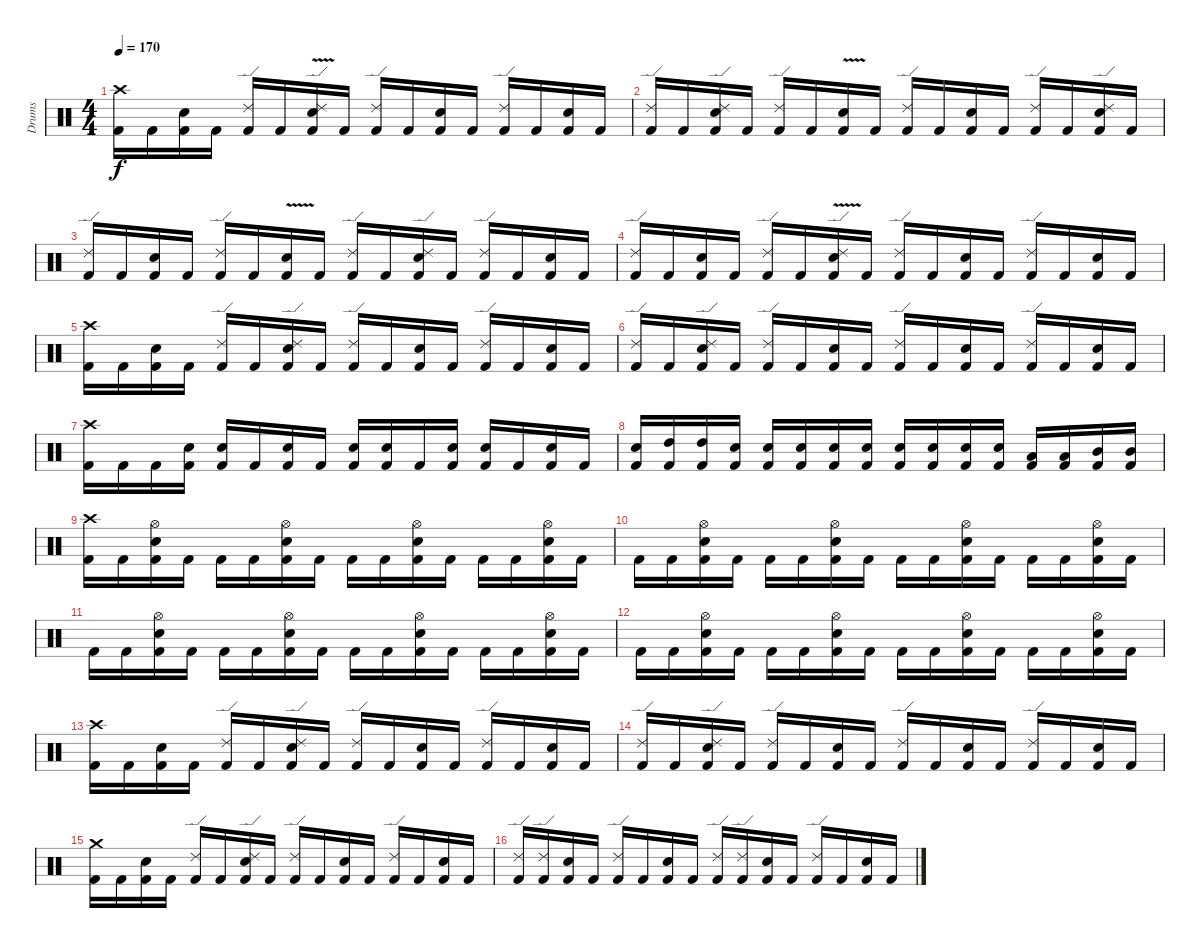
\track ("Drums" "Drums") {instrument percussion}
\staff {score}
\articulation defaults
\ts (4 4)
\tempo 170
\clef neutral
\ks c
("Kick (hit) 2" "Crash high (hit)").16{dy f} "Kick (hit) 2".16 ("Kick (hit) 2" "Electric Snare (hit)").16 "Kick (hit) 2".16 ("Kick (hit) 2" "Ride (edge) 2").16 "Kick (hit) 2".16 ("Kick (hit) 2" "Electric Snare (hit)"{v} "Ride (edge) 2").16 "Kick (hit) 2".16 ("Kick (hit) 2" "Ride (edge) 2").16 "Kick (hit) 2".16 ("Kick (hit) 2" "Electric Snare (hit)").16 "Kick (hit) 2".16 ("Kick (hit) 2" "Ride (edge) 2").16 "Kick (hit) 2".16 ("Kick (hit) 2" "Electric Snare (hit)").16 "Kick (hit) 2".16 |
("Kick (hit) 2" "Ride (edge) 2").16 "Kick (hit) 2".16 ("Kick (hit) 2" "Electric Snare (hit)" "Ride (edge) 2").16 "Kick (hit) 2".16 ("Kick (hit) 2" "Ride (edge) 2").16 "Kick (hit) 2".16 ("Kick (hit) 2" "Electric Snare (hit)"{v}).16 "Kick (hit) 2".16 ("Kick (hit) 2" "Ride (edge) 2").16 "Kick (hit) 2".16 ("Kick (hit) 2" "Electric Snare (hit)").16 "Kick (hit) 2".16 ("Kick (hit) 2" "Ride (edge) 2").16 "Kick (hit) 2".16 ("Kick (hit) 2" "Electric Snare (hit)" "Ride (edge) 2").16 "Kick (hit) 2".16 |
("Kick (hit) 2" "Ride (edge) 2").16 "Kick (hit) 2".16 ("Kick (hit) 2" "Electric Snare (hit)").16 "Kick (hit) 2".16 ("Kick (hit) 2" "Ride (edge) 2").16 "Kick (hit) 2".16 ("Kick (hit) 2" "Electric Snare (hit)"{v}).16 "Kick (hit) 2".16 ("Kick (hit) 2" "Ride (edge) 2").16 "Kick (hit) 2".16 ("Kick (hit) 2" "Electric Snare (hit)" "Ride (edge) 2").16 "Kick (hit) 2".16 ("Kick (hit) 2" "Ride (edge) 2").16 "Kick (hit) 2".16 ("Kick (hit) 2" "Electric Snare (hit)").16 "Kick (hit) 2".16 |
("Kick (hit) 2" "Ride (edge) 2").16 "Kick (hit) 2".16 ("Kick (hit) 2" "Electric Snare (hit)").16 "Kick (hit) 2".16 ("Kick (hit) 2" "Ride (edge) 2").16 "Kick (hit) 2".16 ("Kick (hit) 2" "Electric Snare (hit)"{v} "Ride (edge) 2").16 "Kick (hit) 2".16 ("Kick (hit) 2" "Ride (edge) 2").16 "Kick (hit) 2".16 ("Kick (hit) 2" "Electric Snare (hit)").16 "Kick (hit) 2".16 ("Kick (hit) 2" "Ride (edge) 2").16 "Kick (hit) 2".16 ("Kick (hit) 2" "Electric Snare (hit)").16 "Kick (hit) 2".16 |
("Kick (hit) 2" "Crash high (hit)").16 "Kick (hit) 2".16 ("Kick (hit) 2" "Electric Snare (hit)").16 "Kick (hit) 2".16 ("Kick (hit) 2" "Ride (edge) 2").16 "Kick (hit) 2".16 ("Kick (hit) 2" "Electric Snare (hit)" "Ride (edge) 2").16 "Kick (hit) 2".16 ("Kick (hit) 2" "Ride (edge) 2").16 "Kick (hit) 2".16 ("Kick (hit) 2" "Electric Snare (hit)").16 "Kick (hit) 2".16 ("Kick (hit) 2" "Ride (edge) 2").16 "Kick (hit) 2".16 ("Kick (hit) 2" "Electric Snare (hit)").16 "Kick (hit) 2".16 |
("Kick (hit) 2" "Ride (edge) 2").16 "Kick (hit) 2".16 ("Kick (hit) 2" "Electric Snare (hit)" "Ride (edge) 2").16 "Kick (hit) 2".16 ("Kick (hit) 2" "Ride (edge) 2").16 "Kick (hit) 2".16 ("Kick (hit) 2" "Electric Snare (hit)").16 "Kick (hit) 2".16 ("Kick (hit) 2" "Ride (edge) 2").16 "Kick (hit) 2".16 ("Kick (hit) 2" "Electric Snare (hit)").16 "Kick (hit) 2".16 ("Kick (hit) 2" "Ride (edge) 2").16 "Kick (hit) 2".16 ("Kick (hit) 2" "Electric Snare (hit)").16 "Kick (hit) 2".16 |
("Kick (hit) 2" "Crash high (hit)").16 "Kick (hit) 2".16 "Kick (hit) 2".16 ("Kick (hit) 2" "Electric Snare (hit)").16 ("Kick (hit) 2" "Electric Snare (hit)").16 "Kick (hit) 2".16 ("Kick (hit) 2" "Electric Snare (hit)").16 "Kick (hit) 2".16 ("Kick (hit) 2" "Electric Snare (hit)").16 ("Kick (hit) 2" "Electric Snare (hit)").16 "Kick (hit) 2".16 ("Kick (hit) 2" "Electric Snare (hit)").16 ("Kick (hit) 2" "Electric Snare (hit)").16 "Kick (hit) 2".16 ("Kick (hit) 2" "Electric Snare (hit)").16 "Kick (hit) 2".16 |
("Kick (hit) 2" "Electric Snare (hit)").16 ("Kick (hit) 2" "High Tom (hit)").16 ("Kick (hit) 2" "High Tom (hit)").16 ("Kick (hit) 2" "Electric Snare (hit)").16 ("Kick (hit) 2" "Electric Snare (hit)").16 ("Kick (hit) 2" "Electric Snare (hit)").16 ("Kick (hit) 2" "Electric Snare (hit)").16 ("Kick (hit) 2" "Electric Snare (hit)").16 ("Kick (hit) 2" "Electric Snare (hit)").16 ("Kick (hit) 2" "Electric Snare (hit)").16 ("Kick (hit) 2" "Electric Snare (hit)").16 ("Kick (hit) 2" "Electric Snare (hit)").16 ("Kick (hit) 2" "Low Tom (hit)").16 ("Kick (hit) 2" "Low Tom (hit)").16 ("Kick (hit) 2" "Mid Tom (hit)").16 ("Kick (hit) 2" "Mid Tom (hit)").16 |
("Kick (hit) 2" "Crash high (hit)").16 "Kick (hit) 2".16 ("Kick (hit) 2" "Electric Snare (hit)" "Hi-Hat (open)").16 "Kick (hit) 2".16 "Kick (hit) 2".16 "Kick (hit) 2".16 ("Kick (hit) 2" "Electric Snare (hit)" "Hi-Hat (open)").16 "Kick (hit) 2".16 "Kick (hit) 2".16 "Kick (hit) 2".16 ("Kick (hit) 2" "Electric Snare (hit)" "Hi-Hat (open)").16 "Kick (hit) 2".16 "Kick (hit) 2".16 "Kick (hit) 2".16 ("Kick (hit) 2" "Electric Snare (hit)" "Hi-Hat (open)").16 "Kick (hit) 2".16 |
"Kick (hit) 2".16 "Kick (hit) 2".16 ("Kick (hit) 2" "Electric Snare (hit)" "Hi-Hat (open)").16 "Kick (hit) 2".16 "Kick (hit) 2".16 "Kick (hit) 2".16 ("Kick (hit) 2" "Electric Snare (hit)" "Hi-Hat (open)").16 "Kick (hit) 2".16 "Kick (hit) 2".16 "Kick (hit) 2".16 ("Kick (hit) 2" "Electric Snare (hit)" "Hi-Hat (open)").16 "Kick (hit) 2".16 "Kick (hit) 2".16 "Kick (hit) 2".16 ("Kick (hit) 2" "Electric Snare (hit)" "Hi-Hat (open)").16 "Kick (hit) 2".16 |
"Kick (hit) 2".16 "Kick (hit) 2".16 ("Kick (hit) 2" "Electric Snare (hit)" "Hi-Hat (open)").16 "Kick (hit) 2".16 "Kick (hit) 2".16 "Kick (hit) 2".16 ("Kick (hit) 2" "Electric Snare (hit)" "Hi-Hat (open)").16 "Kick (hit) 2".16 "Kick (hit) 2".16 "Kick (hit) 2".16 ("Kick (hit) 2" "Electric Snare (hit)" "Hi-Hat (open)").16 "Kick (hit) 2".16 "Kick (hit) 2".16 "Kick (hit) 2".16 ("Kick (hit) 2" "Electric Snare (hit)" "Hi-Hat (open)").16 "Kick (hit) 2".16 |
"Kick (hit) 2".16 "Kick (hit) 2".16 ("Kick (hit) 2" "Electric Snare (hit)" "Hi-Hat (open)").16 "Kick (hit) 2".16 "Kick (hit) 2".16 "Kick (hit) 2".16 ("Kick (hit) 2" "Electric Snare (hit)" "Hi-Hat (open)").16 "Kick (hit) 2".16 "Kick (hit) 2".16 "Kick (hit) 2".16 ("Kick (hit) 2" "Electric Snare (hit)" "Hi-Hat (open)").16 "Kick (hit) 2".16 "Kick (hit) 2".16 "Kick (hit) 2".16 ("Kick (hit) 2" "Electric Snare (hit)" "Hi-Hat (open)").16 "Kick (hit) 2".16 |
("Kick (hit) 2" "Crash high (hit)").16 "Kick (hit) 2".16 ("Kick (hit) 2" "Electric Snare (hit)").16 "Kick (hit) 2".16 ("Kick (hit) 2" "Ride (edge) 2").16 "Kick (hit) 2".16 ("Kick (hit) 2" "Electric Snare (hit)" "Ride (edge) 2").16 "Kick (hit) 2".16 ("Kick (hit) 2" "Ride (edge) 2").16 "Kick (hit) 2".16 ("Kick (hit) 2" "Electric Snare (hit)").16 "Kick (hit) 2".16 ("Kick (hit) 2" "Ride (edge) 2").16 "Kick (hit) 2".16 ("Kick (hit) 2" "Electric Snare (hit)").16 "Kick (hit) 2".16 |
("Kick (hit) 2" "Ride (edge) 2").16 "Kick (hit) 2".16 ("Kick (hit) 2" "Electric Snare (hit)" "Ride (edge) 2").16 "Kick (hit) 2".16 ("Kick (hit) 2" "Ride (edge) 2").16 "Kick (hit) 2".16 ("Kick (hit) 2" "Electric Snare (hit)").16 "Kick (hit) 2".16 ("Kick (hit) 2" "Ride (edge) 2").16 "Kick (hit) 2".16 ("Kick (hit) 2" "Electric Snare (hit)").16 "Kick (hit) 2".16 ("Kick (hit) 2" "Ride (edge) 2").16 "Kick (hit) 2".16 ("Kick (hit) 2" "Electric Snare (hit)").16 "Kick (hit) 2".16 |
("Kick (hit) 2" "Crash medium (hit)").16 "Kick (hit) 2".16 ("Kick (hit) 2" "Electric Snare (hit)").16 "Kick (hit) 2".16 ("Kick (hit) 2" "Ride (edge) 2").16 "Kick (hit) 2".16 ("Kick (hit) 2" "Electric Snare (hit)" "Ride (edge) 2").16 "Kick (hit) 2".16 ("Kick (hit) 2" "Ride (edge) 2").16 "Kick (hit) 2".16 ("Kick (hit) 2" "Electric Snare (hit)").16 "Kick (hit) 2".16 ("Kick (hit) 2" "Ride (edge) 2").16 "Kick (hit) 2".16 ("Kick (hit) 2" "Electric Snare (hit)").16 "Kick (hit) 2".16 |
("Kick (hit) 2" "Ride (edge) 2").16 ("Kick (hit) 2" "Ride (edge) 2").16 ("Kick (hit) 2" "Electric Snare (hit)").16 "Kick (hit) 2".16 ("Kick (hit) 2" "Ride (edge) 2").16 "Kick (hit) 2".16 ("Kick (hit) 2" "Electric Snare (hit)").16 "Kick (hit) 2".16 ("Kick (hit) 2" "Ride (edge) 2").16 ("Kick (hit) 2" "Ride (edge) 2").16 ("Kick (hit) 2" "Electric Snare (hit)").16 "Kick (hit) 2".16 ("Kick (hit) 2" "Ride (edge) 2").16 "Kick (hit) 2".16 ("Kick (hit) 2" "Electric Snare (hit)").16 "Kick (hit) 2".16
